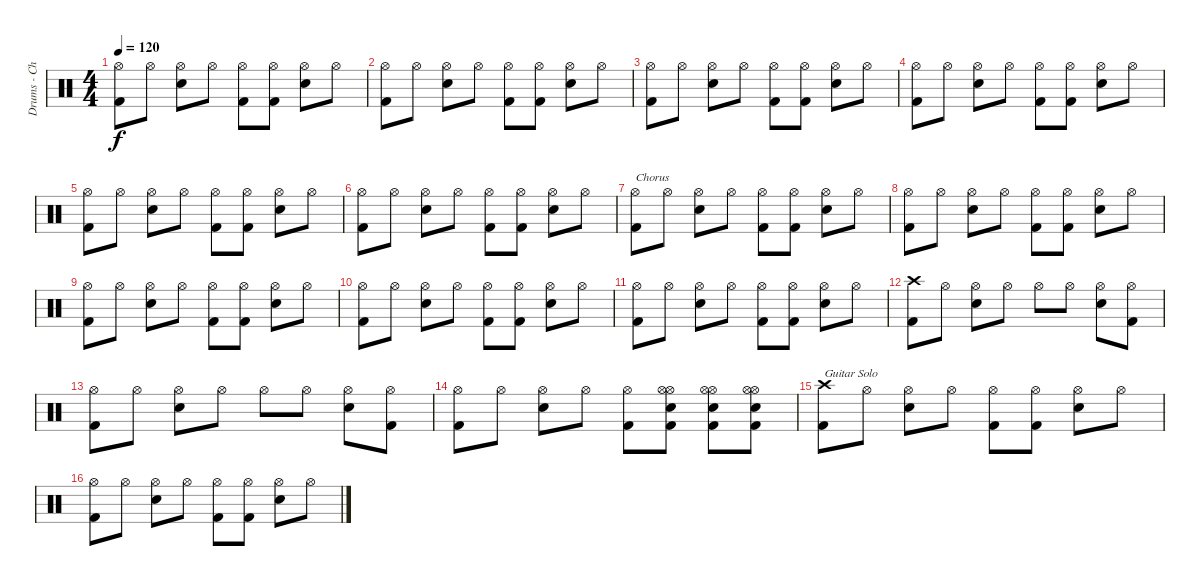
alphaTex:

\track ("Drums - Chris" "Drums - Ch") {instrument percussion}
\staff {score}
\articulation defaults
\ts (4 4)
\tempo 120
\clef neutral
\ks c
("Hi-Hat (open)" "Kick (hit) 2").8{dy f} "Hi-Hat (open)".8 ("Hi-Hat (open)" "Snare (hit) 2").8 "Hi-Hat (open)".8 ("Hi-Hat (open)" "Kick (hit) 2").8 ("Hi-Hat (open)" "Kick (hit) 2").8 ("Hi-Hat (open)" "Snare (hit) 2").8 "Hi-Hat (open)".8 |
("Hi-Hat (open)" "Kick (hit) 2").8 "Hi-Hat (open)".8 ("Hi-Hat (open)" "Snare (hit) 2").8 "Hi-Hat (open)".8 ("Hi-Hat (open)" "Kick (hit) 2").8 ("Hi-Hat (open)" "Kick (hit) 2").8 ("Hi-Hat (open)" "Snare (hit) 2").8 "Hi-Hat (open)".8 |
("Hi-Hat (open)" "Kick (hit) 2").8 "Hi-Hat (open)".8 ("Hi-Hat (open)" "Snare (hit) 2").8 "Hi-Hat (open)".8 ("Hi-Hat (open)" "Kick (hit) 2").8 ("Hi-Hat (open)" "Kick (hit) 2").8 ("Hi-Hat (open)" "Snare (hit) 2").8 "Hi-Hat (open)".8 |
("Hi-Hat (open)" "Kick (hit) 2").8 "Hi-Hat (open)".8 ("Hi-Hat (open)" "Snare (hit) 2").8 "Hi-Hat (open)".8 ("Hi-Hat (open)" "Kick (hit) 2").8 ("Hi-Hat (open)" "Kick (hit) 2").8 ("Hi-Hat (open)" "Snare (hit) 2").8 "Hi-Hat (open)".8 |
("Hi-Hat (open)" "Kick (hit) 2").8 "Hi-Hat (open)".8 ("Hi-Hat (open)" "Snare (hit) 2").8 "Hi-Hat (open)".8 ("Hi-Hat (open)" "Kick (hit) 2").8 ("Hi-Hat (open)" "Kick (hit) 2").8 ("Hi-Hat (open)" "Snare (hit) 2").8 "Hi-Hat (open)".8 |
("Hi-Hat (open)" "Kick (hit) 2").8 "Hi-Hat (open)".8 ("Hi-Hat (open)" "Snare (hit) 2").8 "Hi-Hat (open)".8 ("Hi-Hat (open)" "Kick (hit) 2").8 ("Hi-Hat (open)" "Kick (hit) 2").8 ("Hi-Hat (open)" "Snare (hit) 2").8 "Hi-Hat (open)".8 |
("Hi-Hat (open)" "Kick (hit) 2").8{txt "Chorus"} "Hi-Hat (open)".8 ("Hi-Hat (open)" "Snare (hit) 2").8 "Hi-Hat (open)".8 ("Hi-Hat (open)" "Kick (hit) 2").8 ("Hi-Hat (open)" "Kick (hit) 2").8 ("Hi-Hat (open)" "Snare (hit) 2").8 "Hi-Hat (open)".8 |
("Hi-Hat (open)" "Kick (hit) 2").8 "Hi-Hat (open)".8 ("Hi-Hat (open)" "Snare (hit) 2").8 "Hi-Hat (open)".8 ("Hi-Hat (open)" "Kick (hit) 2").8 ("Hi-Hat (open)" "Kick (hit) 2").8 ("Hi-Hat (open)" "Snare (hit) 2").8 "Hi-Hat (open)".8 |
("Hi-Hat (open)" "Kick (hit) 2").8 "Hi-Hat (open)".8 ("Hi-Hat (open)" "Snare (hit) 2").8 "Hi-Hat (open)".8 ("Hi-Hat (open)" "Kick (hit) 2").8 ("Hi-Hat (open)" "Kick (hit) 2").8 ("Hi-Hat (open)" "Snare (hit) 2").8 "Hi-Hat (open)".8 |
("Hi-Hat (open)" "Kick (hit) 2").8 "Hi-Hat (open)".8 ("Hi-Hat (open)" "Snare (hit) 2").8 "Hi-Hat (open)".8 ("Hi-Hat (open)" "Kick (hit) 2").8 ("Hi-Hat (open)" "Kick (hit) 2").8 ("Hi-Hat (open)" "Snare (hit) 2").8 "Hi-Hat (open)".8 |
("Hi-Hat (open)" "Kick (hit) 2").8 "Hi-Hat (open)".8 ("Hi-Hat (open)" "Snare (hit) 2").8 "Hi-Hat (open)".8 ("Hi-Hat (open)" "Kick (hit) 2").8 ("Hi-Hat (open)" "Kick (hit) 2").8 ("Hi-Hat (open)" "Snare (hit) 2").8 "Hi-Hat (open)".8 |
("Crash high (hit)" "Kick (hit) 2").8 "Hi-Hat (open)".8 ("Hi-Hat (open)" "Snare (hit) 2").8 "Hi-Hat (open)".8 "Hi-Hat (open)".8 "Hi-Hat (open)".8 ("Hi-Hat (open)" "Snare (hit) 2").8 ("Hi-Hat (open)" "Kick (hit) 2").8 |
("Hi-Hat (open)" "Kick (hit) 2").8 "Hi-Hat (open)".8 ("Hi-Hat (open)" "Snare (hit) 2").8 "Hi-Hat (open)".8 "Hi-Hat (open)".8 "Hi-Hat (open)".8 ("Hi-Hat (open)" "Snare (hit) 2").8 ("Hi-Hat (open)" "Kick (hit) 2").8 |
("Hi-Hat (open)" "Kick (hit) 2").8 "Hi-Hat (open)".8 ("Hi-Hat (open)" "Snare (hit) 2").8 "Hi-Hat (open)".8 ("Hi-Hat (open)" "Kick (hit) 2").8 ("Hi-Hat (open)" "Hi-Hat (open)" "Snare (hit) 2" "Kick (hit) 2").8 ("Hi-Hat (open)" "Hi-Hat (open)" "Snare (hit) 2" "Kick (hit) 2").8 ("Hi-Hat (open)" "Hi-Hat (open)" "Snare (hit) 2" "Kick (hit) 2").8 |
("Crash high (hit)" "Kick (hit) 2").8{txt "Guitar Solo"} "Hi-Hat (open)".8 ("Hi-Hat (open)" "Snare (hit) 2").8 "Hi-Hat (open)".8 ("Hi-Hat (open)" "Kick (hit) 2").8 ("Hi-Hat (open)" "Kick (hit) 2").8 ("Hi-Hat (open)" "Snare (hit) 2").8 "Hi-Hat (open)".8 |
("Hi-Hat (open)" "Kick (hit) 2").8 "Hi-Hat (open)".8 ("Hi-Hat (open)" "Snare (hit) 2").8 "Hi-Hat (open)".8 ("Hi-Hat (open)" "Kick (hit) 2").8 ("Hi-Hat (open)" "Kick (hit) 2").8 ("Hi-Hat (open)" "Snare (hit) 2").8 "Hi-Hat (open)".8
